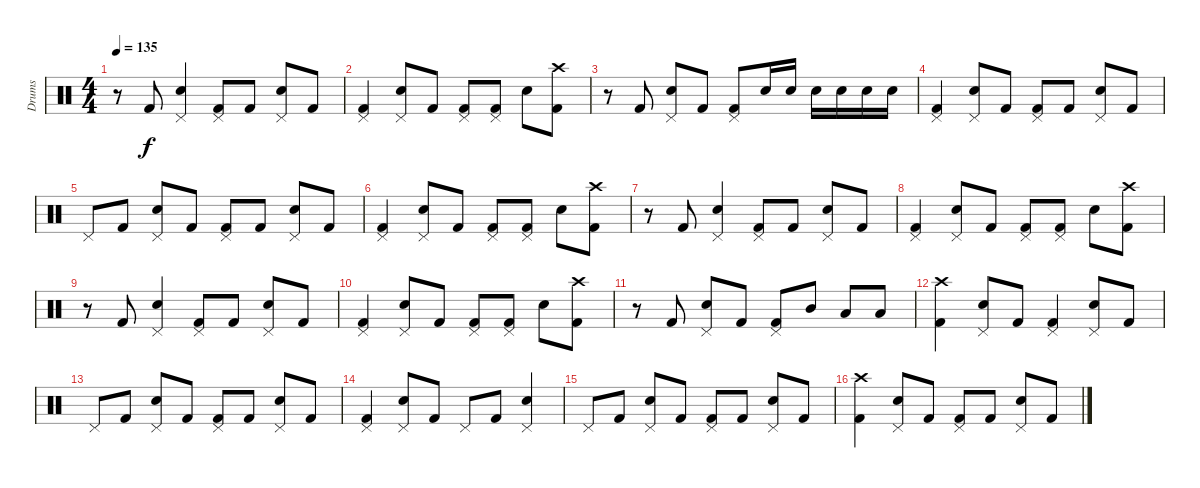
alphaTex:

\track ("Drums" "Drums") {instrument percussion}
\staff {score}
\articulation defaults
\ts (4 4)
\tempo 135
\clef neutral
\ks c
r.8{dy f} "Kick (hit) 2".8 ("Pedal Hi-Hat (hit)" "Electric Snare (hit)").4 ("Pedal Hi-Hat (hit)" "Kick (hit) 2").8 "Kick (hit) 2".8 ("Pedal Hi-Hat (hit)" "Electric Snare (hit)").8 "Kick (hit) 2".8 |
("Pedal Hi-Hat (hit)" "Kick (hit) 2").4 ("Pedal Hi-Hat (hit)" "Electric Snare (hit)").8 "Kick (hit) 2".8 ("Pedal Hi-Hat (hit)" "Kick (hit) 2").8 ("Pedal Hi-Hat (hit)" "Kick (hit) 2").8 "Electric Snare (hit)".8 ("Crash high (hit)" "Kick (hit) 2").8 |
r.8 "Kick (hit) 2".8 ("Pedal Hi-Hat (hit)" "Electric Snare (hit)").8 "Kick (hit) 2".8 ("Pedal Hi-Hat (hit)" "Kick (hit) 2").8 "Electric Snare (hit)".16 "Electric Snare (hit)".16 "Electric Snare (hit)".16 "Electric Snare (hit)".16 "Electric Snare (hit)".16 "Electric Snare (hit)".16 |
("Pedal Hi-Hat (hit)" "Kick (hit) 2").4 ("Pedal Hi-Hat (hit)" "Electric Snare (hit)").8 "Kick (hit) 2".8 ("Pedal Hi-Hat (hit)" "Kick (hit) 2").8 "Kick (hit) 2".8 ("Pedal Hi-Hat (hit)" "Electric Snare (hit)").8 "Kick (hit) 2".8 |
"Pedal Hi-Hat (hit)".8 "Kick (hit) 2".8 ("Pedal Hi-Hat (hit)" "Electric Snare (hit)").8 "Kick (hit) 2".8 ("Pedal Hi-Hat (hit)" "Kick (hit) 2").8 "Kick (hit) 2".8 ("Pedal Hi-Hat (hit)" "Electric Snare (hit)").8 "Kick (hit) 2".8 |
("Pedal Hi-Hat (hit)" "Kick (hit) 2").4 ("Pedal Hi-Hat (hit)" "Electric Snare (hit)").8 "Kick (hit) 2".8 ("Pedal Hi-Hat (hit)" "Kick (hit) 2").8 ("Pedal Hi-Hat (hit)" "Kick (hit) 2").8 "Electric Snare (hit)".8 ("Crash high (hit)" "Kick (hit) 2").8 |
r.8 "Kick (hit) 2".8 ("Pedal Hi-Hat (hit)" "Electric Snare (hit)").4 ("Pedal Hi-Hat (hit)" "Kick (hit) 2").8 "Kick (hit) 2".8 ("Pedal Hi-Hat (hit)" "Electric Snare (hit)").8 "Kick (hit) 2".8 |
("Pedal Hi-Hat (hit)" "Kick (hit) 2").4 ("Pedal Hi-Hat (hit)" "Electric Snare (hit)").8 "Kick (hit) 2".8 ("Pedal Hi-Hat (hit)" "Kick (hit) 2").8 ("Pedal Hi-Hat (hit)" "Kick (hit) 2").8 "Electric Snare (hit)".8 ("Crash high (hit)" "Kick (hit) 2").8 |
r.8 "Kick (hit) 2".8 ("Pedal Hi-Hat (hit)" "Electric Snare (hit)").4 ("Pedal Hi-Hat (hit)" "Kick (hit) 2").8 "Kick (hit) 2".8 ("Pedal Hi-Hat (hit)" "Electric Snare (hit)").8 "Kick (hit) 2".8 |
("Pedal Hi-Hat (hit)" "Kick (hit) 2").4 ("Pedal Hi-Hat (hit)" "Electric Snare (hit)").8 "Kick (hit) 2".8 ("Pedal Hi-Hat (hit)" "Kick (hit) 2").8 ("Pedal Hi-Hat (hit)" "Kick (hit) 2").8 "Electric Snare (hit)".8 ("Crash high (hit)" "Kick (hit) 2").8 |
r.8 "Kick (hit) 2".8 ("Pedal Hi-Hat (hit)" "Electric Snare (hit)").8 "Kick (hit) 2".8 ("Pedal Hi-Hat (hit)" "Kick (hit) 2").8 "Mid Tom (hit)".8 "Low Floor Tom (hit)".8 "Low Floor Tom (hit)".8 |
("Crash high (hit)" "Kick (hit) 2").4 ("Pedal Hi-Hat (hit)" "Electric Snare (hit)").8 "Kick (hit) 2".8 ("Pedal Hi-Hat (hit)" "Kick (hit) 2").4 ("Pedal Hi-Hat (hit)" "Electric Snare (hit)").8 "Kick (hit) 2".8 |
"Pedal Hi-Hat (hit)".8 "Kick (hit) 2".8 ("Pedal Hi-Hat (hit)" "Electric Snare (hit)").8 "Kick (hit) 2".8 ("Pedal Hi-Hat (hit)" "Kick (hit) 2").8 "Kick (hit) 2".8 ("Pedal Hi-Hat (hit)" "Electric Snare (hit)").8 "Kick (hit) 2".8 |
("Pedal Hi-Hat (hit)" "Kick (hit) 2").4 ("Pedal Hi-Hat (hit)" "Electric Snare (hit)").8 "Kick (hit) 2".8 "Pedal Hi-Hat (hit)".8 "Kick (hit) 2".8 ("Pedal Hi-Hat (hit)" "Electric Snare (hit)").4 |
"Pedal Hi-Hat (hit)".8 "Kick (hit) 2".8 ("Pedal Hi-Hat (hit)" "Electric Snare (hit)").8 "Kick (hit) 2".8 ("Pedal Hi-Hat (hit)" "Kick (hit) 2").8 "Kick (hit) 2".8 ("Pedal Hi-Hat (hit)" "Electric Snare (hit)").8 "Kick (hit) 2".8 |
("Crash high (hit)" "Kick (hit) 2").4 ("Pedal Hi-Hat (hit)" "Electric Snare (hit)").8 "Kick (hit) 2".8 ("Pedal Hi-Hat (hit)" "Kick (hit) 2").8 "Kick (hit) 2".8 ("Pedal Hi-Hat (hit)" "Electric Snare (hit)").8 "Kick (hit) 2".8
